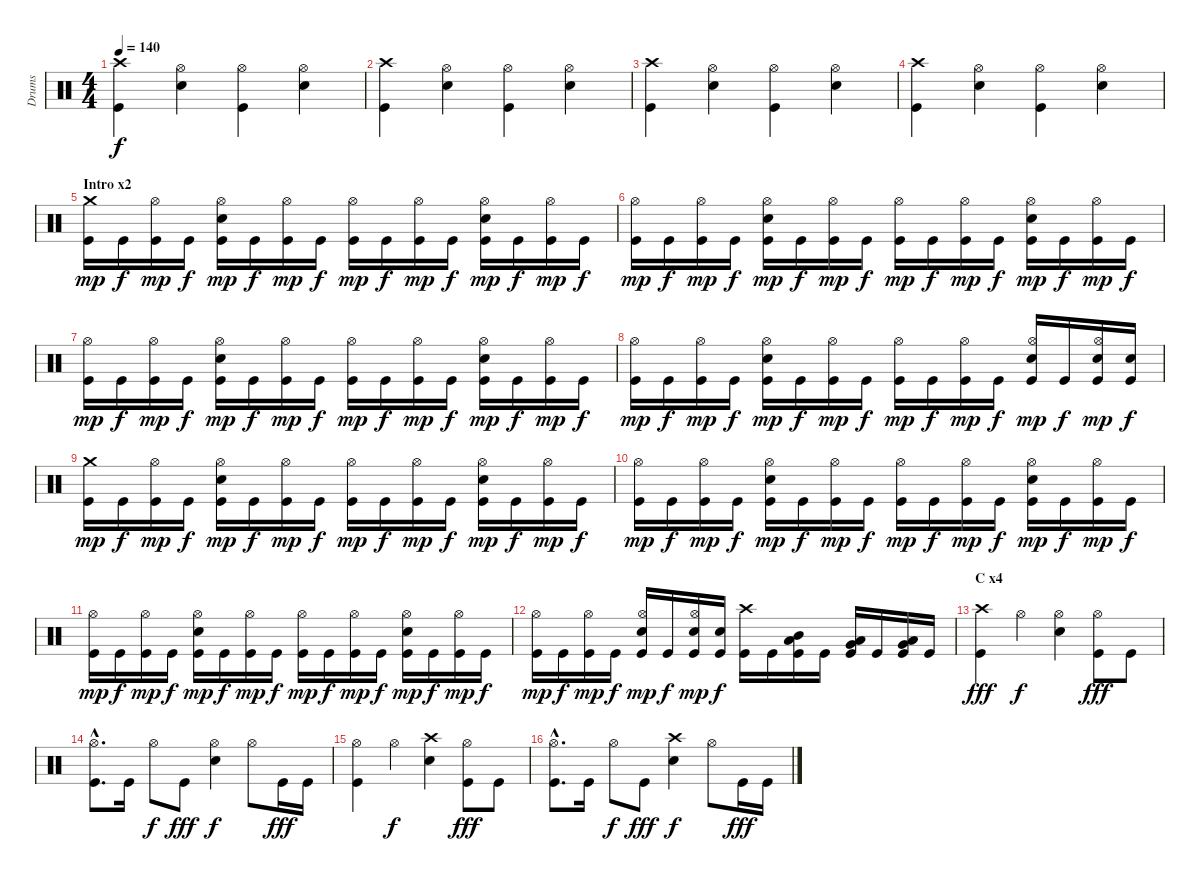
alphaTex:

\track ("Drums" "Drums") {instrument percussion}
\staff {score}
\articulation defaults
\ts (4 4)
\tempo 140
\clef neutral
\ks c
("Crash high (hit)" "Kick (hit)").4{dy f} ("Hi-Hat (open)" "Snare (hit) 2").4 ("Hi-Hat (open)" "Kick (hit)").4 ("Hi-Hat (open)" "Snare (hit) 2").4 |
("Crash high (hit)" "Kick (hit)").4 ("Hi-Hat (open)" "Snare (hit) 2").4 ("Hi-Hat (open)" "Kick (hit)").4 ("Hi-Hat (open)" "Snare (hit) 2").4 |
("Crash high (hit)" "Kick (hit)").4 ("Hi-Hat (open)" "Snare (hit) 2").4 ("Hi-Hat (open)" "Kick (hit)").4 ("Hi-Hat (open)" "Snare (hit) 2").4 |
("Crash high (hit)" "Kick (hit)").4 ("Hi-Hat (open)" "Snare (hit) 2").4 ("Hi-Hat (open)" "Kick (hit)").4 ("Hi-Hat (open)" "Snare (hit) 2").4 |
\section ("" "Intro x2")
("Crash medium (hit)" "Kick (hit)").16{dy mp} "Kick (hit)".16{dy f} ("Hi-Hat (open)" "Kick (hit)").16{dy mp} "Kick (hit)".16{dy f} ("Hi-Hat (open)" "Snare (hit) 2" "Kick (hit)").16{dy mp} "Kick (hit)".16{dy f} ("Hi-Hat (open)" "Kick (hit)").16{dy mp} "Kick (hit)".16{dy f} ("Hi-Hat (open)" "Kick (hit)").16{dy mp} "Kick (hit)".16{dy f} ("Hi-Hat (open)" "Kick (hit)").16{dy mp} "Kick (hit)".16{dy f} ("Hi-Hat (open)" "Snare (hit) 2" "Kick (hit)").16{dy mp} "Kick (hit)".16{dy f} ("Hi-Hat (open)" "Kick (hit)").16{dy mp} "Kick (hit)".16{dy f} |
("Hi-Hat (open)" "Kick (hit)").16{dy mp} "Kick (hit)".16{dy f} ("Hi-Hat (open)" "Kick (hit)").16{dy mp} "Kick (hit)".16{dy f} ("Hi-Hat (open)" "Snare (hit) 2" "Kick (hit)").16{dy mp} "Kick (hit)".16{dy f} ("Hi-Hat (open)" "Kick (hit)").16{dy mp} "Kick (hit)".16{dy f} ("Hi-Hat (open)" "Kick (hit)").16{dy mp} "Kick (hit)".16{dy f} ("Hi-Hat (open)" "Kick (hit)").16{dy mp} "Kick (hit)".16{dy f} ("Hi-Hat (open)" "Snare (hit) 2" "Kick (hit)").16{dy mp} "Kick (hit)".16{dy f} ("Hi-Hat (open)" "Kick (hit)").16{dy mp} "Kick (hit)".16{dy f} |
("Hi-Hat (open)" "Kick (hit)").16{dy mp} "Kick (hit)".16{dy f} ("Hi-Hat (open)" "Kick (hit)").16{dy mp} "Kick (hit)".16{dy f} ("Hi-Hat (open)" "Snare (hit) 2" "Kick (hit)").16{dy mp} "Kick (hit)".16{dy f} ("Hi-Hat (open)" "Kick (hit)").16{dy mp} "Kick (hit)".16{dy f} ("Hi-Hat (open)" "Kick (hit)").16{dy mp} "Kick (hit)".16{dy f} ("Hi-Hat (open)" "Kick (hit)").16{dy mp} "Kick (hit)".16{dy f} ("Hi-Hat (open)" "Snare (hit) 2" "Kick (hit)").16{dy mp} "Kick (hit)".16{dy f} ("Hi-Hat (open)" "Kick (hit)").16{dy mp} "Kick (hit)".16{dy f} |
("Hi-Hat (open)" "Kick (hit)").16{dy mp} "Kick (hit)".16{dy f} ("Hi-Hat (open)" "Kick (hit)").16{dy mp} "Kick (hit)".16{dy f} ("Hi-Hat (open)" "Snare (hit) 2" "Kick (hit)").16{dy mp} "Kick (hit)".16{dy f} ("Hi-Hat (open)" "Kick (hit)").16{dy mp} "Kick (hit)".16{dy f} ("Hi-Hat (open)" "Kick (hit)").16{dy mp} "Kick (hit)".16{dy f} ("Hi-Hat (open)" "Kick (hit)").16{dy mp} "Kick (hit)".16{dy f} ("Hi-Hat (open)" "Snare (hit) 2" "Kick (hit)").16{dy mp} "Kick (hit)".16{dy f} ("Hi-Hat (open)" "Snare (hit) 2" "Kick (hit)").16{dy mp} ("Snare (hit) 2" "Kick (hit)").16{dy f} |
("Crash medium (hit)" "Kick (hit)").16{dy mp} "Kick (hit)".16{dy f} ("Hi-Hat (open)" "Kick (hit)").16{dy mp} "Kick (hit)".16{dy f} ("Hi-Hat (open)" "Snare (hit) 2" "Kick (hit)").16{dy mp} "Kick (hit)".16{dy f} ("Hi-Hat (open)" "Kick (hit)").16{dy mp} "Kick (hit)".16{dy f} ("Hi-Hat (open)" "Kick (hit)").16{dy mp} "Kick (hit)".16{dy f} ("Hi-Hat (open)" "Kick (hit)").16{dy mp} "Kick (hit)".16{dy f} ("Hi-Hat (open)" "Snare (hit) 2" "Kick (hit)").16{dy mp} "Kick (hit)".16{dy f} ("Hi-Hat (open)" "Kick (hit)").16{dy mp} "Kick (hit)".16{dy f} |
("Hi-Hat (open)" "Kick (hit)").16{dy mp} "Kick (hit)".16{dy f} ("Hi-Hat (open)" "Kick (hit)").16{dy mp} "Kick (hit)".16{dy f} ("Hi-Hat (open)" "Snare (hit) 2" "Kick (hit)").16{dy mp} "Kick (hit)".16{dy f} ("Hi-Hat (open)" "Kick (hit)").16{dy mp} "Kick (hit)".16{dy f} ("Hi-Hat (open)" "Kick (hit)").16{dy mp} "Kick (hit)".16{dy f} ("Hi-Hat (open)" "Kick (hit)").16{dy mp} "Kick (hit)".16{dy f} ("Hi-Hat (open)" "Snare (hit) 2" "Kick (hit)").16{dy mp} "Kick (hit)".16{dy f} ("Hi-Hat (open)" "Kick (hit)").16{dy mp} "Kick (hit)".16{dy f} |
("Hi-Hat (open)" "Kick (hit)").16{dy mp} "Kick (hit)".16{dy f} ("Hi-Hat (open)" "Kick (hit)").16{dy mp} "Kick (hit)".16{dy f} ("Hi-Hat (open)" "Snare (hit) 2" "Kick (hit)").16{dy mp} "Kick (hit)".16{dy f} ("Hi-Hat (open)" "Kick (hit)").16{dy mp} "Kick (hit)".16{dy f} ("Hi-Hat (open)" "Kick (hit)").16{dy mp} "Kick (hit)".16{dy f} ("Hi-Hat (open)" "Kick (hit)").16{dy mp} "Kick (hit)".16{dy f} ("Hi-Hat (open)" "Snare (hit) 2" "Kick (hit)").16{dy mp} "Kick (hit)".16{dy f} ("Hi-Hat (open)" "Kick (hit)").16{dy mp} "Kick (hit)".16{dy f} |
("Hi-Hat (open)" "Kick (hit)").16{dy mp} "Kick (hit)".16{dy f} ("Hi-Hat (open)" "Kick (hit)").16{dy mp} "Kick (hit)".16{dy f} ("Hi-Hat (open)" "Snare (hit) 2" "Kick (hit)").16{dy mp} "Kick (hit)".16{dy f} ("Hi-Hat (open)" "Snare (hit) 2" "Kick (hit)").16{dy mp} ("Snare (hit) 2" "Kick (hit)").16{dy f} ("Crash high (hit)" "Kick (hit)").16 "Kick (hit)".16 ("Mid Tom (hit)" "Low Tom (hit)" "Kick (hit)").16 "Kick (hit)".16 ("Low Tom (hit)" "Very Low Tom (hit)" "Kick (hit)").16 "Kick (hit)".16 ("Very Low Tom (hit)" "Low Floor Tom (hit)" "Kick (hit)").16 "Kick (hit)".16 |
\section ("" "C x4")
("Crash high (hit)" "Kick (hit)").4{dy fff} "Hi-Hat (open)".4{dy f} ("Hi-Hat (open)" "Snare (hit) 2").4 ("Hi-Hat (open)" "Kick (hit)").8{dy fff} "Kick (hit)".8 |
("Hi-Hat (open)"{hac} "Kick (hit)"{hac}).8{d} "Kick (hit)".16 "Hi-Hat (open)".8{dy f} "Kick (hit)".8{dy fff} ("Hi-Hat (open)" "Snare (hit) 2").4{dy f} "Hi-Hat (open)".8 "Kick (hit)".16{dy fff} "Kick (hit)".16 |
("Hi-Hat (open)" "Kick (hit)").4 "Hi-Hat (open)".4{dy f} ("Crash high (hit)" "Snare (hit) 2").4 ("Hi-Hat (open)" "Kick (hit)").8{dy fff} "Kick (hit)".8 |
("Hi-Hat (open)"{hac} "Kick (hit)"{hac}).8{d} "Kick (hit)".16 "Hi-Hat (open)".8{dy f} "Kick (hit)".8{dy fff} ("Crash high (hit)" "Snare (hit) 2").4{dy f} "Hi-Hat (open)".8 "Kick (hit)".16{dy fff} "Kick (hit)".16
